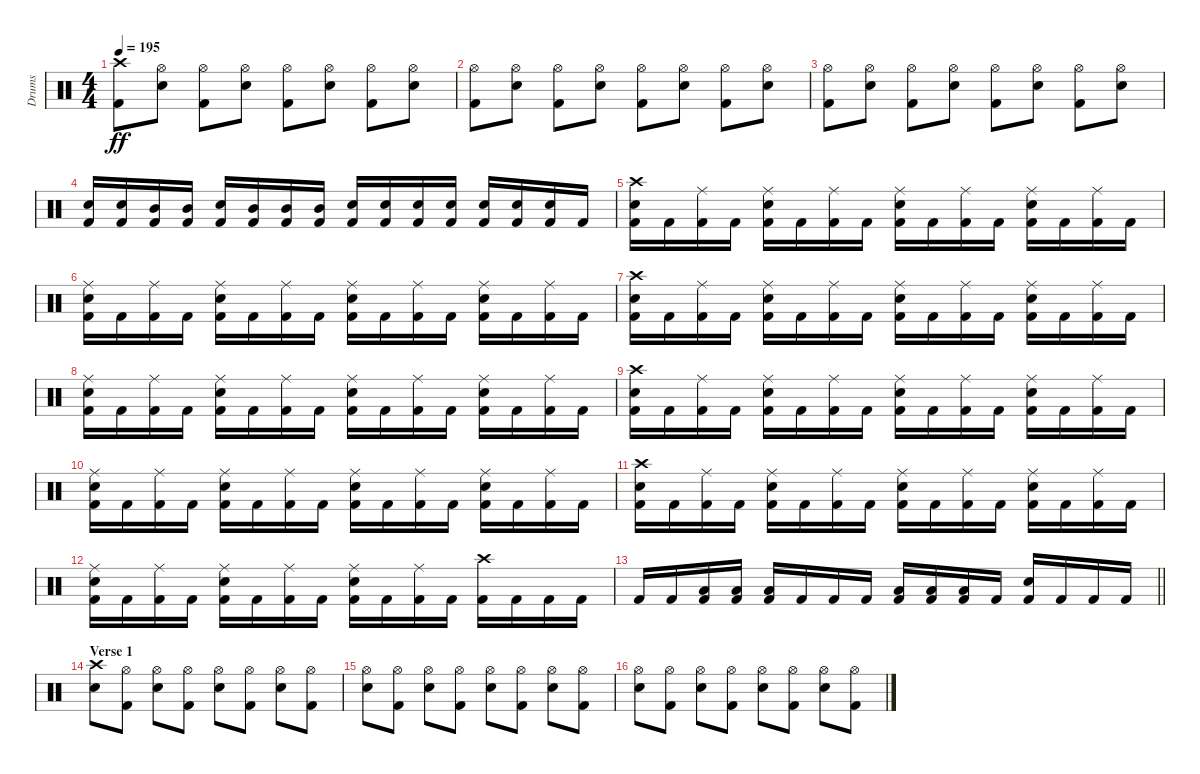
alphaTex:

\track ("Drums" "Drums") {instrument percussion}
\staff {score}
\articulation defaults
\ts (4 4)
\tempo 195
\clef neutral
\ks c
("Crash high (hit)" "Kick (hit) 2").8{dy ff} ("Hi-Hat (open)" "Snare (hit) 2").8 ("Hi-Hat (open)" "Kick (hit) 2").8 ("Hi-Hat (open)" "Snare (hit) 2").8 ("Hi-Hat (open)" "Kick (hit) 2").8 ("Hi-Hat (open)" "Snare (hit) 2").8 ("Hi-Hat (open)" "Kick (hit) 2").8 ("Hi-Hat (open)" "Snare (hit) 2").8 |
("Hi-Hat (open)" "Kick (hit) 2").8 ("Hi-Hat (open)" "Snare (hit) 2").8 ("Hi-Hat (open)" "Kick (hit) 2").8 ("Hi-Hat (open)" "Snare (hit) 2").8 ("Hi-Hat (open)" "Kick (hit) 2").8 ("Hi-Hat (open)" "Snare (hit) 2").8 ("Hi-Hat (open)" "Kick (hit) 2").8 ("Hi-Hat (open)" "Snare (hit) 2").8 |
("Hi-Hat (open)" "Kick (hit) 2").8 ("Hi-Hat (open)" "Snare (hit) 2").8 ("Hi-Hat (open)" "Kick (hit) 2").8 ("Hi-Hat (open)" "Snare (hit) 2").8 ("Hi-Hat (open)" "Kick (hit) 2").8 ("Hi-Hat (open)" "Snare (hit) 2").8 ("Hi-Hat (open)" "Kick (hit) 2").8 ("Hi-Hat (open)" "Snare (hit) 2").8 |
("Snare (hit) 2" "Kick (hit) 2").16 ("Snare (hit) 2" "Kick (hit) 2").16 ("Mid Tom (hit)" "Kick (hit) 2").16 ("Mid Tom (hit)" "Kick (hit) 2").16 ("Snare (hit) 2" "Kick (hit) 2").16 ("Mid Tom (hit)" "Kick (hit) 2").16 ("Mid Tom (hit)" "Kick (hit) 2").16 ("Mid Tom (hit)" "Kick (hit) 2").16 ("Snare (hit) 2" "Kick (hit) 2").16 ("Snare (hit) 2" "Kick (hit) 2").16 ("Snare (hit) 2" "Kick (hit) 2").16 ("Snare (hit) 2" "Kick (hit) 2").16 ("Snare (hit) 2" "Kick (hit) 2").16 ("Snare (hit) 2" "Kick (hit) 2").16 ("Snare (hit) 2" "Kick (hit) 2").16 "Kick (hit) 2".16 |
("Crash high (hit)" "Snare (hit) 2" "Kick (hit) 2").16 "Kick (hit) 2".16 ("Ride (middle)" "Kick (hit) 2").16 "Kick (hit) 2".16 ("Ride (middle)" "Snare (hit) 2" "Kick (hit) 2").16 "Kick (hit) 2".16 ("Ride (middle)" "Kick (hit) 2").16 "Kick (hit) 2".16 ("Ride (middle)" "Snare (hit) 2" "Kick (hit) 2").16 "Kick (hit) 2".16 ("Ride (middle)" "Kick (hit) 2").16 "Kick (hit) 2".16 ("Ride (middle)" "Snare (hit) 2" "Kick (hit) 2").16 "Kick (hit) 2".16 ("Ride (middle)" "Kick (hit) 2").16 "Kick (hit) 2".16 |
("Ride (middle)" "Snare (hit) 2" "Kick (hit) 2").16 "Kick (hit) 2".16 ("Ride (middle)" "Kick (hit) 2").16 "Kick (hit) 2".16 ("Ride (middle)" "Snare (hit) 2" "Kick (hit) 2").16 "Kick (hit) 2".16 ("Ride (middle)" "Kick (hit) 2").16 "Kick (hit) 2".16 ("Ride (middle)" "Snare (hit) 2" "Kick (hit) 2").16 "Kick (hit) 2".16 ("Ride (middle)" "Kick (hit) 2").16 "Kick (hit) 2".16 ("Ride (middle)" "Snare (hit) 2" "Kick (hit) 2").16 "Kick (hit) 2".16 ("Ride (middle)" "Kick (hit) 2").16 "Kick (hit) 2".16 |
("Crash high (hit)" "Snare (hit) 2" "Kick (hit) 2").16 "Kick (hit) 2".16 ("Ride (middle)" "Kick (hit) 2").16 "Kick (hit) 2".16 ("Ride (middle)" "Snare (hit) 2" "Kick (hit) 2").16 "Kick (hit) 2".16 ("Ride (middle)" "Kick (hit) 2").16 "Kick (hit) 2".16 ("Ride (middle)" "Snare (hit) 2" "Kick (hit) 2").16 "Kick (hit) 2".16 ("Ride (middle)" "Kick (hit) 2").16 "Kick (hit) 2".16 ("Ride (middle)" "Snare (hit) 2" "Kick (hit) 2").16 "Kick (hit) 2".16 ("Ride (middle)" "Kick (hit) 2").16 "Kick (hit) 2".16 |
("Ride (middle)" "Snare (hit) 2" "Kick (hit) 2").16 "Kick (hit) 2".16 ("Ride (middle)" "Kick (hit) 2").16 "Kick (hit) 2".16 ("Ride (middle)" "Snare (hit) 2" "Kick (hit) 2").16 "Kick (hit) 2".16 ("Ride (middle)" "Kick (hit) 2").16 "Kick (hit) 2".16 ("Ride (middle)" "Snare (hit) 2" "Kick (hit) 2").16 "Kick (hit) 2".16 ("Ride (middle)" "Kick (hit) 2").16 "Kick (hit) 2".16 ("Ride (middle)" "Snare (hit) 2" "Kick (hit) 2").16 "Kick (hit) 2".16 ("Ride (middle)" "Kick (hit) 2").16 "Kick (hit) 2".16 |
("Crash high (hit)" "Snare (hit) 2" "Kick (hit) 2").16 "Kick (hit) 2".16 ("Ride (middle)" "Kick (hit) 2").16 "Kick (hit) 2".16 ("Ride (middle)" "Snare (hit) 2" "Kick (hit) 2").16 "Kick (hit) 2".16 ("Ride (middle)" "Kick (hit) 2").16 "Kick (hit) 2".16 ("Ride (middle)" "Snare (hit) 2" "Kick (hit) 2").16 "Kick (hit) 2".16 ("Ride (middle)" "Kick (hit) 2").16 "Kick (hit) 2".16 ("Ride (middle)" "Snare (hit) 2" "Kick (hit) 2").16 "Kick (hit) 2".16 ("Ride (middle)" "Kick (hit) 2").16 "Kick (hit) 2".16 |
("Ride (middle)" "Snare (hit) 2" "Kick (hit) 2").16 "Kick (hit) 2".16 ("Ride (middle)" "Kick (hit) 2").16 "Kick (hit) 2".16 ("Ride (middle)" "Snare (hit) 2" "Kick (hit) 2").16 "Kick (hit) 2".16 ("Ride (middle)" "Kick (hit) 2").16 "Kick (hit) 2".16 ("Ride (middle)" "Snare (hit) 2" "Kick (hit) 2").16 "Kick (hit) 2".16 ("Ride (middle)" "Kick (hit) 2").16 "Kick (hit) 2".16 ("Ride (middle)" "Snare (hit) 2" "Kick (hit) 2").16 "Kick (hit) 2".16 ("Ride (middle)" "Kick (hit) 2").16 "Kick (hit) 2".16 |
("Crash high (hit)" "Snare (hit) 2" "Kick (hit) 2").16 "Kick (hit) 2".16 ("Ride (middle)" "Kick (hit) 2").16 "Kick (hit) 2".16 ("Ride (middle)" "Snare (hit) 2" "Kick (hit) 2").16 "Kick (hit) 2".16 ("Ride (middle)" "Kick (hit) 2").16 "Kick (hit) 2".16 ("Ride (middle)" "Snare (hit) 2" "Kick (hit) 2").16 "Kick (hit) 2".16 ("Ride (middle)" "Kick (hit) 2").16 "Kick (hit) 2".16 ("Ride (middle)" "Snare (hit) 2" "Kick (hit) 2").16 "Kick (hit) 2".16 ("Ride (middle)" "Kick (hit) 2").16 "Kick (hit) 2".16 |
("Ride (middle)" "Snare (hit) 2" "Kick (hit) 2").16 "Kick (hit) 2".16 ("Ride (middle)" "Kick (hit) 2").16 "Kick (hit) 2".16 ("Ride (middle)" "Snare (hit) 2" "Kick (hit) 2").16 "Kick (hit) 2".16 ("Ride (middle)" "Kick (hit) 2").16 "Kick (hit) 2".16 ("Ride (middle)" "Snare (hit) 2" "Kick (hit) 2").16 "Kick (hit) 2".16 ("Ride (middle)" "Kick (hit) 2").16 "Kick (hit) 2".16 ("Crash high (hit)" "Kick (hit) 2").16 "Kick (hit) 2".16 "Kick (hit) 2".16 "Kick (hit) 2".16 |
\barLineRight lightlight "Kick (hit) 2".16 "Kick (hit) 2".16
("Low Tom (hit)" "Kick (hit) 2").16 ("Low Tom (hit)" "Kick (hit) 2").16 ("Low Tom (hit)" "Kick (hit) 2").16 "Kick (hit) 2".16 "Kick (hit) 2".16 "Kick (hit) 2".16 ("Low Tom (hit)" "Kick (hit) 2").16 ("Low Tom (hit)" "Kick (hit) 2").16 ("Low Tom (hit)" "Kick (hit) 2").16 "Kick (hit) 2".16 ("Snare (hit) 2" "Kick (hit) 2").16 "Kick (hit) 2".16 "Kick (hit) 2".16 "Kick (hit) 2".16 |
\section ("" "Verse 1")
("Crash high (hit)" "Snare (hit) 2").8 ("Hi-Hat (open)" "Kick (hit) 2").8 ("Hi-Hat (open)" "Snare (hit) 2").8 ("Hi-Hat (open)" "Kick (hit) 2").8 ("Hi-Hat (open)" "Snare (hit) 2").8 ("Hi-Hat (open)" "Kick (hit) 2").8 ("Hi-Hat (open)" "Snare (hit) 2").8 ("Hi-Hat (open)" "Kick (hit) 2").8 |
("Hi-Hat (open)" "Snare (hit) 2").8 ("Hi-Hat (open)" "Kick (hit) 2").8 ("Hi-Hat (open)" "Snare (hit) 2").8 ("Hi-Hat (open)" "Kick (hit) 2").8 ("Hi-Hat (open)" "Snare (hit) 2").8 ("Hi-Hat (open)" "Kick (hit) 2").8 ("Hi-Hat (open)" "Snare (hit) 2").8 ("Hi-Hat (open)" "Kick (hit) 2").8 |
("Hi-Hat (open)" "Snare (hit) 2").8 ("Hi-Hat (open)" "Kick (hit) 2").8 ("Hi-Hat (open)" "Snare (hit) 2").8 ("Hi-Hat (open)" "Kick (hit) 2").8 ("Hi-Hat (open)" "Snare (hit) 2").8 ("Hi-Hat (open)" "Kick (hit) 2").8 ("Hi-Hat (open)" "Snare (hit) 2").8 ("Hi-Hat (open)" "Kick (hit) 2").8
